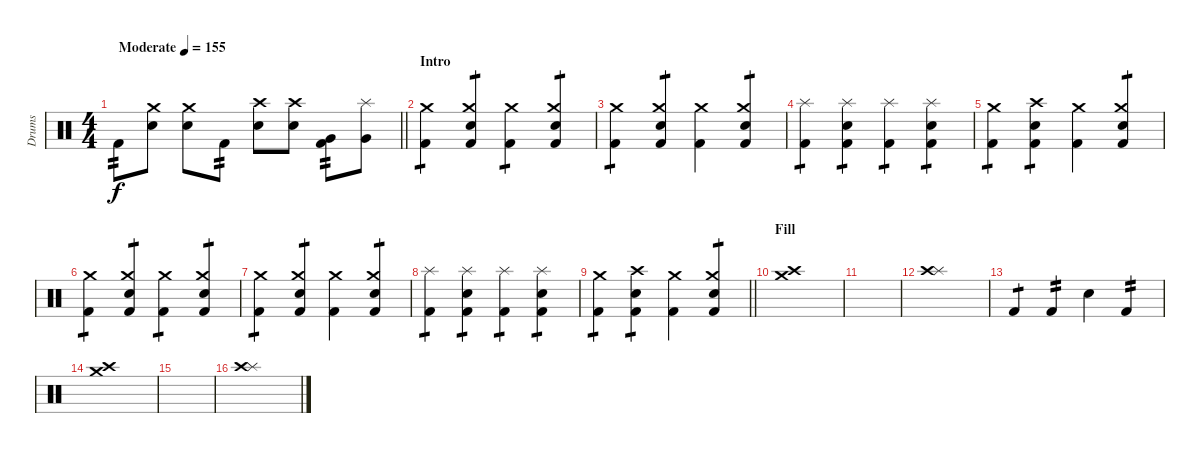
\track ("Drums" "Drums") {instrument percussion}
\staff {score}
\articulation defaults
\ts (4 4)
\tempo (155 "Moderate")
\clef neutral
\barLineRight lightlight
\ks c "Kick (hit) 2".8{tp 2 dy f}
("Crash medium (hit)" "Snare (hit) 2").8 ("Crash medium (hit)" "Snare (hit) 2").8 "Kick (hit) 2".8{tp 2} ("Crash high (hit)" "Snare (hit) 2").8 ("Crash high (hit)" "Snare (hit) 2").8 ("Kick (hit) 2" "Very Low Tom (hit)").8{tp 2} ("Splash (hit)" "Very Low Tom (hit)").8 |
\section ("" "Intro")
("Crash medium (hit)" "Kick (hit) 2").4{tp 1} ("Crash medium (hit)" "Snare (hit) 2" "Kick (hit) 2").4{tp 1} ("Crash medium (hit)" "Kick (hit) 2").4{tp 1} ("Crash medium (hit)" "Snare (hit) 2" "Kick (hit) 2").4{tp 1} |
("Crash medium (hit)" "Kick (hit) 2").4{tp 1} ("Crash medium (hit)" "Snare (hit) 2" "Kick (hit) 2").4{tp 1} ("Crash medium (hit)" "Kick (hit) 2").4 ("Crash medium (hit)" "Snare (hit) 2" "Kick (hit) 2").4{tp 1} |
("Splash (hit)" "Kick (hit) 2").4{tp 1} ("Splash (hit)" "Snare (hit) 2" "Kick (hit) 2").4{tp 1} ("Splash (hit)" "Kick (hit) 2").4{tp 1} ("Splash (hit)" "Snare (hit) 2" "Kick (hit) 2").4{tp 1} |
("Crash medium (hit)" "Kick (hit) 2").4{tp 1} ("Crash high (hit)" "Snare (hit) 2" "Kick (hit) 2").4{tp 1} ("Crash medium (hit)" "Kick (hit) 2").4 ("Crash medium (hit)" "Snare (hit) 2" "Kick (hit) 2").4{tp 1} |
("Crash medium (hit)" "Kick (hit) 2").4{tp 1} ("Crash medium (hit)" "Snare (hit) 2" "Kick (hit) 2").4{tp 1} ("Crash medium (hit)" "Kick (hit) 2").4{tp 1} ("Crash medium (hit)" "Snare (hit) 2" "Kick (hit) 2").4{tp 1} |
("Crash medium (hit)" "Kick (hit) 2").4{tp 1} ("Crash medium (hit)" "Snare (hit) 2" "Kick (hit) 2").4{tp 1} ("Crash medium (hit)" "Kick (hit) 2").4 ("Crash medium (hit)" "Snare (hit) 2" "Kick (hit) 2").4{tp 1} |
("Splash (hit)" "Kick (hit) 2").4{tp 1} ("Splash (hit)" "Snare (hit) 2" "Kick (hit) 2").4{tp 1} ("Splash (hit)" "Kick (hit) 2").4{tp 1} ("Splash (hit)" "Snare (hit) 2" "Kick (hit) 2").4{tp 1} |
\barLineRight lightlight
("Crash medium (hit)" "Kick (hit) 2").4{tp 1} ("Crash high (hit)" "Snare (hit) 2" "Kick (hit) 2").4{tp 1} ("Crash medium (hit)" "Kick (hit) 2").4 ("Crash medium (hit)" "Snare (hit) 2" "Kick (hit) 2").4{tp 1} |
\section ("" "Fill")
("Crash medium (hit)" "Crash high (hit)").1 |
|
("Splash (hit)" "Crash high (hit)").1 |
"Kick (hit) 2".4{tp 1} "Kick (hit) 2".4{tp 2} "Snare (hit) 2".4 "Kick (hit) 2".4{tp 2} |
("Crash medium (hit)" "Crash high (hit)").1 |
|
("Splash (hit)" "Crash high (hit)").1
